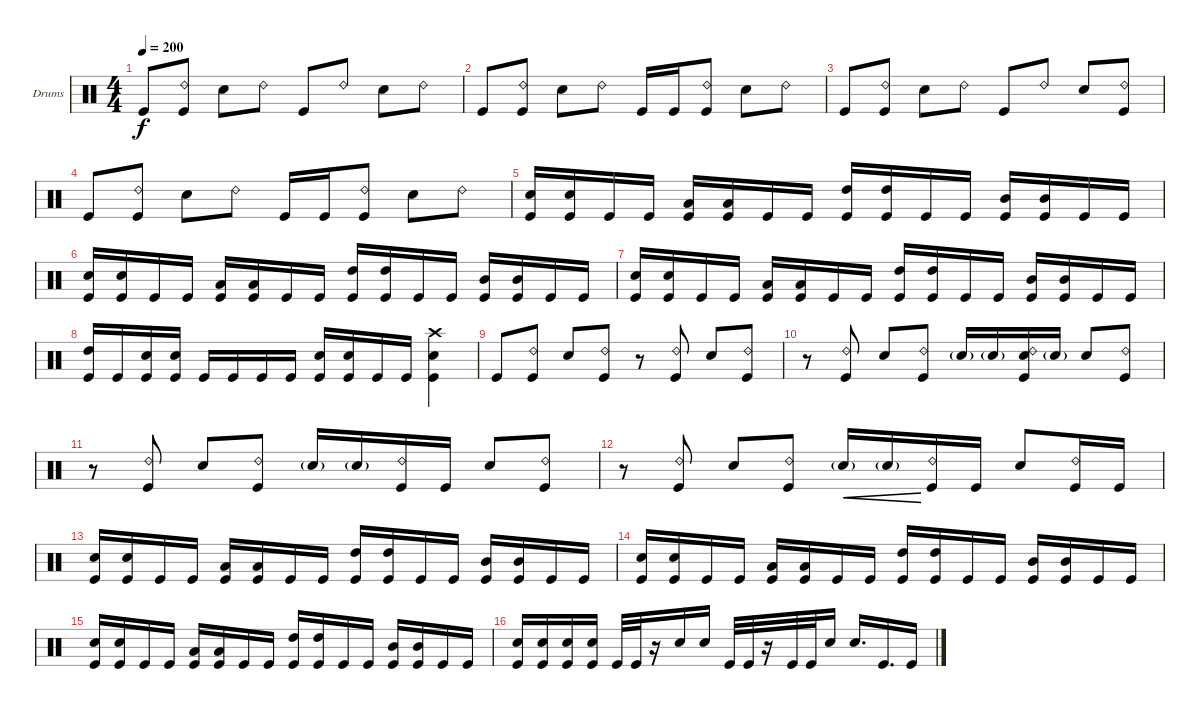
\bracketExtendMode groupsimilarinstruments
\firstSystemTrackNameOrientation horizontal
\otherSystemsTrackNameOrientation horizontal
\track ("Drumkit" "Drums") {multiBarRest instrument percussion}
\staff {score}
\articulation defaults
\ts (4 4)
\tempo 200
\clef neutral
\ks c "Kick (hit)".8{dy f}
("Ride (bell) 2" "Kick (hit)").8 "Snare (hit) 2".8 "Ride (bell) 2".8 "Kick (hit)".8 "Ride (bell) 2".8 "Snare (hit) 2".8 "Ride (bell) 2".8 |
"Kick (hit)".8 ("Ride (bell) 2" "Kick (hit)").8 "Snare (hit) 2".8 "Ride (bell) 2".8 "Kick (hit)".16 "Kick (hit)".16 ("Ride (bell) 2" "Kick (hit)").8 "Snare (hit) 2".8 "Ride (bell) 2".8 |
"Kick (hit)".8 ("Ride (bell) 2" "Kick (hit)").8 "Snare (hit) 2".8 "Ride (bell) 2".8 "Kick (hit)".8 "Ride (bell) 2".8 "Snare (hit) 2".8 ("Ride (bell) 2" "Kick (hit)").8 |
"Kick (hit)".8 ("Ride (bell) 2" "Kick (hit)").8 "Snare (hit) 2".8 "Ride (bell) 2".8 "Kick (hit)".16 "Kick (hit)".16 ("Ride (bell) 2" "Kick (hit)").8 "Snare (hit) 2".8 "Ride (bell) 2".8 |
("Snare (hit) 2" "Kick (hit)").16 ("Snare (hit) 2" "Kick (hit)").16 "Kick (hit)".16 "Kick (hit)".16 ("Low Tom (hit)" "Kick (hit)").16 ("Low Tom (hit)" "Kick (hit)").16 "Kick (hit)".16 "Kick (hit)".16 ("High Tom (hit)" "Kick (hit)").16 ("High Tom (hit)" "Kick (hit)").16 "Kick (hit)".16 "Kick (hit)".16 ("Mid Tom (hit)" "Kick (hit)").16 ("Mid Tom (hit)" "Kick (hit)").16 "Kick (hit)".16 "Kick (hit)".16 |
("Snare (hit) 2" "Kick (hit)").16 ("Snare (hit) 2" "Kick (hit)").16 "Kick (hit)".16 "Kick (hit)".16 ("Low Tom (hit)" "Kick (hit)").16 ("Low Tom (hit)" "Kick (hit)").16 "Kick (hit)".16 "Kick (hit)".16 ("High Tom (hit)" "Kick (hit)").16 ("High Tom (hit)" "Kick (hit)").16 "Kick (hit)".16 "Kick (hit)".16 ("Mid Tom (hit)" "Kick (hit)").16 ("Mid Tom (hit)" "Kick (hit)").16 "Kick (hit)".16 "Kick (hit)".16 |
("Snare (hit) 2" "Kick (hit)").16 ("Snare (hit) 2" "Kick (hit)").16 "Kick (hit)".16 "Kick (hit)".16 ("Low Tom (hit)" "Kick (hit)").16 ("Low Tom (hit)" "Kick (hit)").16 "Kick (hit)".16 "Kick (hit)".16 ("High Tom (hit)" "Kick (hit)").16 ("High Tom (hit)" "Kick (hit)").16 "Kick (hit)".16 "Kick (hit)".16 ("Mid Tom (hit)" "Kick (hit)").16 ("Mid Tom (hit)" "Kick (hit)").16 "Kick (hit)".16 "Kick (hit)".16 |
("High Tom (hit)" "Kick (hit)").16 "Kick (hit)".16 ("Snare (hit) 2" "Kick (hit)").16 ("Snare (hit) 2" "Kick (hit)").16 "Kick (hit)".16 "Kick (hit)".16 "Kick (hit)".16 "Kick (hit)".16 ("Snare (hit) 2" "Kick (hit)").16 ("Snare (hit) 2" "Kick (hit)").16 "Kick (hit)".16 "Kick (hit)".16 ("Crash high (hit)" "Snare (hit) 2" "Kick (hit)").4 |
"Kick (hit)".8 ("Ride (bell) 2" "Kick (hit)").8 "Snare (hit) 2".8 ("Ride (bell) 2" "Kick (hit)").8 r.8 ("Ride (bell) 2" "Kick (hit)").8 "Snare (hit) 2".8 ("Ride (bell) 2" "Kick (hit)").8 |
r.8 ("Ride (bell) 2" "Kick (hit)").8 "Snare (hit) 2".8 ("Ride (bell) 2" "Kick (hit)").8 "Snare (hit) 2"{g}.16 "Snare (hit) 2"{g}.16 ("Ride (bell) 2" "Snare (hit) 2" "Kick (hit)").16 "Snare (hit) 2"{g}.16 "Snare (hit) 2".8 ("Ride (bell) 2" "Kick (hit)").8 |
r.8 ("Ride (bell) 2" "Kick (hit)").8 "Snare (hit) 2".8 ("Ride (bell) 2" "Kick (hit)").8 "Snare (hit) 2"{g}.16 "Snare (hit) 2"{g}.16 ("Ride (bell) 2" "Kick (hit)").16 "Kick (hit)".16 "Snare (hit) 2".8 ("Ride (bell) 2" "Kick (hit)").8 |
r.8 ("Ride (bell) 2" "Kick (hit)").8 "Snare (hit) 2".8 ("Ride (bell) 2" "Kick (hit)").8 "Snare (hit) 2"{g}.16{cre} "Snare (hit) 2"{g}.16{cre} ("Ride (bell) 2" "Kick (hit)").16 "Kick (hit)".16 "Snare (hit) 2".8 ("Ride (bell) 2" "Kick (hit)").16 "Kick (hit)".16 |
("Snare (hit) 2" "Kick (hit)").16 ("Snare (hit) 2" "Kick (hit)").16 "Kick (hit)".16 "Kick (hit)".16 ("Low Tom (hit)" "Kick (hit)").16 ("Low Tom (hit)" "Kick (hit)").16 "Kick (hit)".16 "Kick (hit)".16 ("High Tom (hit)" "Kick (hit)").16 ("High Tom (hit)" "Kick (hit)").16 "Kick (hit)".16 "Kick (hit)".16 ("Mid Tom (hit)" "Kick (hit)").16 ("Mid Tom (hit)" "Kick (hit)").16 "Kick (hit)".16 "Kick (hit)".16 |
("Snare (hit) 2" "Kick (hit)").16 ("Snare (hit) 2" "Kick (hit)").16 "Kick (hit)".16 "Kick (hit)".16 ("Low Tom (hit)" "Kick (hit)").16 ("Low Tom (hit)" "Kick (hit)").16 "Kick (hit)".16 "Kick (hit)".16 ("High Tom (hit)" "Kick (hit)").16 ("High Tom (hit)" "Kick (hit)").16 "Kick (hit)".16 "Kick (hit)".16 ("Mid Tom (hit)" "Kick (hit)").16 ("Mid Tom (hit)" "Kick (hit)").16 "Kick (hit)".16 "Kick (hit)".16 |
("Snare (hit) 2" "Kick (hit)").16 ("Snare (hit) 2" "Kick (hit)").16 "Kick (hit)".16 "Kick (hit)".16 ("Low Tom (hit)" "Kick (hit)").16 ("Low Tom (hit)" "Kick (hit)").16 "Kick (hit)".16 "Kick (hit)".16 ("High Tom (hit)" "Kick (hit)").16 ("High Tom (hit)" "Kick (hit)").16 "Kick (hit)".16 "Kick (hit)".16 ("Mid Tom (hit)" "Kick (hit)").16 ("Mid Tom (hit)" "Kick (hit)").16 "Kick (hit)".16 "Kick (hit)".16 |
("Snare (hit) 2" "Kick (hit)").16 ("Snare (hit) 2" "Kick (hit)").16 ("Snare (hit) 2" "Kick (hit)").16 ("Snare (hit) 2" "Kick (hit)").16 "Kick (hit)".32 "Kick (hit)".32 r.16 "Snare (hit) 2".16 "Snare (hit) 2".16 "Kick (hit)".32 "Kick (hit)".32 r.16 "Kick (hit)".32 "Kick (hit)".32 "Snare (hit) 2".16 "Snare (hit) 2".16{d} "Kick (hit)".16{d} "Kick (hit)".16
